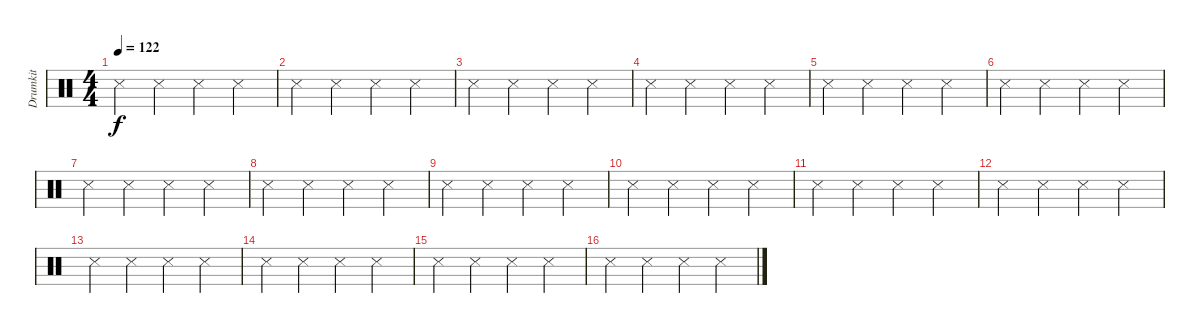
\track ("Drumkit" "Drumkit") {mute instrument percussion}
\staff {score}
\articulation defaults
\ts (4 4)
\tempo 122
\clef neutral
\ks c "Snare (side stick) 3".4{dy f} "Snare (side stick) 3".4 "Snare (side stick) 3".4 "Snare (side stick) 3".4
|
"Snare (side stick) 3".4 "Snare (side stick) 3".4 "Snare (side stick) 3".4 "Snare (side stick) 3".4 |
"Snare (side stick) 3".4 "Snare (side stick) 3".4 "Snare (side stick) 3".4 "Snare (side stick) 3".4 |
"Snare (side stick) 3".4 "Snare (side stick) 3".4 "Snare (side stick) 3".4 "Snare (side stick) 3".4 |
"Snare (side stick) 3".4 "Snare (side stick) 3".4 "Snare (side stick) 3".4 "Snare (side stick) 3".4 |
"Snare (side stick) 3".4 "Snare (side stick) 3".4 "Snare (side stick) 3".4 "Snare (side stick) 3".4 |
"Snare (side stick) 3".4 "Snare (side stick) 3".4 "Snare (side stick) 3".4 "Snare (side stick) 3".4 |
"Snare (side stick) 3".4 "Snare (side stick) 3".4 "Snare (side stick) 3".4 "Snare (side stick) 3".4 |
"Snare (side stick) 3".4 "Snare (side stick) 3".4 "Snare (side stick) 3".4 "Snare (side stick) 3".4 |
"Snare (side stick) 3".4 "Snare (side stick) 3".4 "Snare (side stick) 3".4 "Snare (side stick) 3".4 |
"Snare (side stick) 3".4 "Snare (side stick) 3".4 "Snare (side stick) 3".4 "Snare (side stick) 3".4 |
"Snare (side stick) 3".4 "Snare (side stick) 3".4 "Snare (side stick) 3".4 "Snare (side stick) 3".4 |
"Snare (side stick) 3".4 "Snare (side stick) 3".4 "Snare (side stick) 3".4 "Snare (side stick) 3".4 |
"Snare (side stick) 3".4 "Snare (side stick) 3".4 "Snare (side stick) 3".4 "Snare (side stick) 3".4 |
"Snare (side stick) 3".4 "Snare (side stick) 3".4 "Snare (side stick) 3".4 "Snare (side stick) 3".4 |
"Snare (side stick) 3".4 "Snare (side stick) 3".4 "Snare (side stick) 3".4 "Snare (side stick) 3".4
